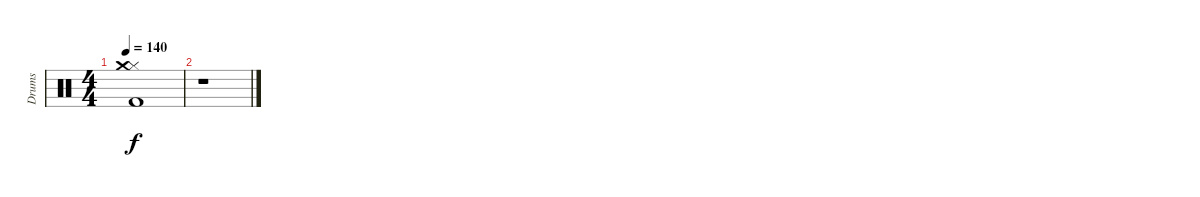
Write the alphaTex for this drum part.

\track ("Drums" "Drums") {instrument percussion}
\staff {score}
\articulation defaults
\ts (4 4)
\tempo 140
\clef neutral
\ks c
("Hi-Hat (closed)" "Crash medium (hit)" "Kick (hit) 2").1{dy f} |
r.1
